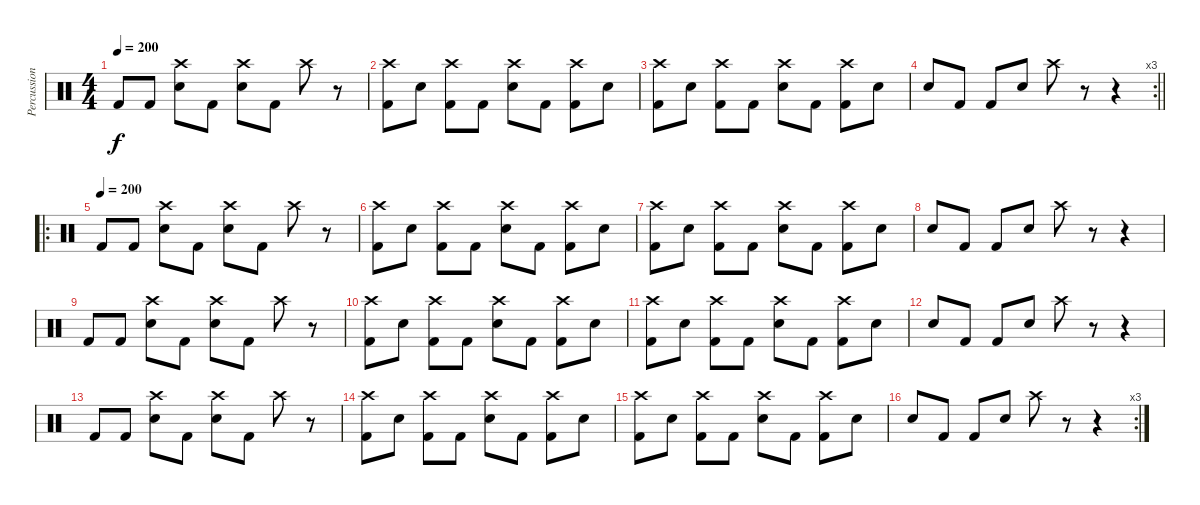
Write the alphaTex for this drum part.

\track ("Percussion" "Percussion") {instrument percussion}
\staff {score}
\articulation defaults
\ts (4 4)
\tempo 200
\clef neutral
\ks c "Kick (hit) 2".8{dy f} "Kick (hit) 2".8
("Crash high (hit)" "Electric Snare (hit)").8 "Kick (hit) 2".8 ("Crash high (hit)" "Electric Snare (hit)").8 "Kick (hit) 2".8 "Crash high (hit)".8 r.8 |
("Crash high (hit)" "Kick (hit) 2").8 "Electric Snare (hit)".8 ("Crash high (hit)" "Kick (hit) 2").8 "Kick (hit) 2".8 ("Crash high (hit)" "Electric Snare (hit)").8 "Kick (hit) 2".8 ("Crash high (hit)" "Kick (hit) 2").8 "Electric Snare (hit)".8 |
("Crash high (hit)" "Kick (hit) 2").8 "Electric Snare (hit)".8 ("Crash high (hit)" "Kick (hit) 2").8 "Kick (hit) 2".8 ("Crash high (hit)" "Electric Snare (hit)").8 "Kick (hit) 2".8 ("Crash high (hit)" "Kick (hit) 2").8 "Electric Snare (hit)".8 |
\rc 3
\barLineRight lightlight "Electric Snare (hit)".8 "Kick (hit) 2".8 "Kick (hit) 2".8 "Electric Snare (hit)".8 "Crash high (hit)".8
r.8 r.4 |
\ro
\tempo (200)
"Kick (hit) 2".8 "Kick (hit) 2".8 ("Crash high (hit)" "Electric Snare (hit)").8 "Kick (hit) 2".8 ("Crash high (hit)" "Electric Snare (hit)").8 "Kick (hit) 2".8 "Crash high (hit)".8 r.8 |
("Crash high (hit)" "Kick (hit) 2").8 "Electric Snare (hit)".8 ("Crash high (hit)" "Kick (hit) 2").8 "Kick (hit) 2".8 ("Crash high (hit)" "Electric Snare (hit)").8 "Kick (hit) 2".8 ("Crash high (hit)" "Kick (hit) 2").8 "Electric Snare (hit)".8 |
("Crash high (hit)" "Kick (hit) 2").8 "Electric Snare (hit)".8 ("Crash high (hit)" "Kick (hit) 2").8 "Kick (hit) 2".8 ("Crash high (hit)" "Electric Snare (hit)").8 "Kick (hit) 2".8 ("Crash high (hit)" "Kick (hit) 2").8 "Electric Snare (hit)".8 |
"Electric Snare (hit)".8 "Kick (hit) 2".8 "Kick (hit) 2".8 "Electric Snare (hit)".8 "Crash high (hit)".8 r.8 r.4 |
"Kick (hit) 2".8 "Kick (hit) 2".8 ("Crash high (hit)" "Electric Snare (hit)").8 "Kick (hit) 2".8 ("Crash high (hit)" "Electric Snare (hit)").8 "Kick (hit) 2".8 "Crash high (hit)".8 r.8 |
("Crash high (hit)" "Kick (hit) 2").8 "Electric Snare (hit)".8 ("Crash high (hit)" "Kick (hit) 2").8 "Kick (hit) 2".8 ("Crash high (hit)" "Electric Snare (hit)").8 "Kick (hit) 2".8 ("Crash high (hit)" "Kick (hit) 2").8 "Electric Snare (hit)".8 |
("Crash high (hit)" "Kick (hit) 2").8 "Electric Snare (hit)".8 ("Crash high (hit)" "Kick (hit) 2").8 "Kick (hit) 2".8 ("Crash high (hit)" "Electric Snare (hit)").8 "Kick (hit) 2".8 ("Crash high (hit)" "Kick (hit) 2").8 "Electric Snare (hit)".8 |
"Electric Snare (hit)".8 "Kick (hit) 2".8 "Kick (hit) 2".8 "Electric Snare (hit)".8 "Crash high (hit)".8 r.8 r.4 |
"Kick (hit) 2".8 "Kick (hit) 2".8 ("Crash high (hit)" "Electric Snare (hit)").8 "Kick (hit) 2".8 ("Crash high (hit)" "Electric Snare (hit)").8 "Kick (hit) 2".8 "Crash high (hit)".8 r.8 |
("Crash high (hit)" "Kick (hit) 2").8 "Electric Snare (hit)".8 ("Crash high (hit)" "Kick (hit) 2").8 "Kick (hit) 2".8 ("Crash high (hit)" "Electric Snare (hit)").8 "Kick (hit) 2".8 ("Crash high (hit)" "Kick (hit) 2").8 "Electric Snare (hit)".8 |
("Crash high (hit)" "Kick (hit) 2").8 "Electric Snare (hit)".8 ("Crash high (hit)" "Kick (hit) 2").8 "Kick (hit) 2".8 ("Crash high (hit)" "Electric Snare (hit)").8 "Kick (hit) 2".8 ("Crash high (hit)" "Kick (hit) 2").8 "Electric Snare (hit)".8 |
\rc 3 "Electric Snare (hit)".8 "Kick (hit) 2".8 "Kick (hit) 2".8 "Electric Snare (hit)".8 "Crash high (hit)".8
r.8 r.4
